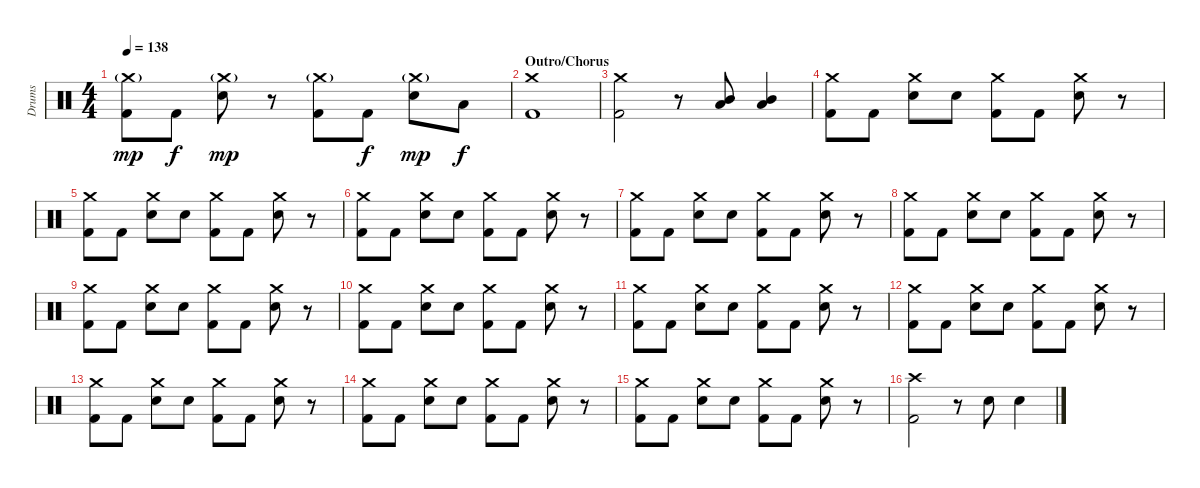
\track ("Drums" "Drums") {instrument percussion}
\staff {score}
\articulation defaults
\ts (4 4)
\tempo 138
\clef neutral
\ks c
("Crash medium (hit)"{g} "Kick (hit) 2").8{dy mp} "Kick (hit) 2".8{dy f} ("Crash medium (hit)"{g} "Electric Snare (hit)").8{dy mp} r.8 ("Crash medium (hit)"{g} "Kick (hit) 2").8 "Kick (hit) 2".8{dy f} ("Crash medium (hit)"{g} "Electric Snare (hit)").8{dy mp} "Low Tom (hit)".8{dy f} |
\section ("" "Outro/Chorus")
("Crash medium (hit)" "Kick (hit) 2").1 |
("Crash medium (hit)" "Kick (hit) 2").2 r.8 ("Mid Tom (hit)" "Low Tom (hit)").8 ("Mid Tom (hit)" "Low Tom (hit)").4 |
("Crash medium (hit)" "Kick (hit) 2").8 "Kick (hit) 2".8 ("Crash medium (hit)" "Electric Snare (hit)").8 "Electric Snare (hit)".8 ("Crash medium (hit)" "Kick (hit) 2").8 "Kick (hit) 2".8 ("Crash medium (hit)" "Electric Snare (hit)").8 r.8 |
("Crash medium (hit)" "Kick (hit) 2").8 "Kick (hit) 2".8 ("Crash medium (hit)" "Electric Snare (hit)").8 "Electric Snare (hit)".8 ("Crash medium (hit)" "Kick (hit) 2").8 "Kick (hit) 2".8 ("Crash medium (hit)" "Electric Snare (hit)").8 r.8 |
("Crash medium (hit)" "Kick (hit) 2").8 "Kick (hit) 2".8 ("Crash medium (hit)" "Electric Snare (hit)").8 "Electric Snare (hit)".8 ("Crash medium (hit)" "Kick (hit) 2").8 "Kick (hit) 2".8 ("Crash medium (hit)" "Electric Snare (hit)").8 r.8 |
("Crash medium (hit)" "Kick (hit) 2").8 "Kick (hit) 2".8 ("Crash medium (hit)" "Electric Snare (hit)").8 "Electric Snare (hit)".8 ("Crash medium (hit)" "Kick (hit) 2").8 "Kick (hit) 2".8 ("Crash medium (hit)" "Electric Snare (hit)").8 r.8 |
("Crash medium (hit)" "Kick (hit) 2").8 "Kick (hit) 2".8 ("Crash medium (hit)" "Electric Snare (hit)").8 "Electric Snare (hit)".8 ("Crash medium (hit)" "Kick (hit) 2").8 "Kick (hit) 2".8 ("Crash medium (hit)" "Electric Snare (hit)").8 r.8 |
("Crash medium (hit)" "Kick (hit) 2").8 "Kick (hit) 2".8 ("Crash medium (hit)" "Electric Snare (hit)").8 "Electric Snare (hit)".8 ("Crash medium (hit)" "Kick (hit) 2").8 "Kick (hit) 2".8 ("Crash medium (hit)" "Electric Snare (hit)").8 r.8 |
("Crash medium (hit)" "Kick (hit) 2").8 "Kick (hit) 2".8 ("Crash medium (hit)" "Electric Snare (hit)").8 "Electric Snare (hit)".8 ("Crash medium (hit)" "Kick (hit) 2").8 "Kick (hit) 2".8 ("Crash medium (hit)" "Electric Snare (hit)").8 r.8 |
("Crash medium (hit)" "Kick (hit) 2").8 "Kick (hit) 2".8 ("Crash medium (hit)" "Electric Snare (hit)").8 "Electric Snare (hit)".8 ("Crash medium (hit)" "Kick (hit) 2").8 "Kick (hit) 2".8 ("Crash medium (hit)" "Electric Snare (hit)").8 r.8 |
("Crash medium (hit)" "Kick (hit) 2").8 "Kick (hit) 2".8 ("Crash medium (hit)" "Electric Snare (hit)").8 "Electric Snare (hit)".8 ("Crash medium (hit)" "Kick (hit) 2").8 "Kick (hit) 2".8 ("Crash medium (hit)" "Electric Snare (hit)").8 r.8 |
("Crash medium (hit)" "Kick (hit) 2").8 "Kick (hit) 2".8 ("Crash medium (hit)" "Electric Snare (hit)").8 "Electric Snare (hit)".8 ("Crash medium (hit)" "Kick (hit) 2").8 "Kick (hit) 2".8 ("Crash medium (hit)" "Electric Snare (hit)").8 r.8 |
("Crash medium (hit)" "Kick (hit) 2").8 "Kick (hit) 2".8 ("Crash medium (hit)" "Electric Snare (hit)").8 "Electric Snare (hit)".8 ("Crash medium (hit)" "Kick (hit) 2").8 "Kick (hit) 2".8 ("Crash medium (hit)" "Electric Snare (hit)").8 r.8 |
("Crash medium (hit)" "Kick (hit) 2").8 "Kick (hit) 2".8 ("Crash medium (hit)" "Electric Snare (hit)").8 "Electric Snare (hit)".8 ("Crash medium (hit)" "Kick (hit) 2").8 "Kick (hit) 2".8 ("Crash medium (hit)" "Electric Snare (hit)").8 r.8 |
("Crash high (hit)" "Kick (hit) 2").2 r.8 "Electric Snare (hit)".8 "Electric Snare (hit)".4
